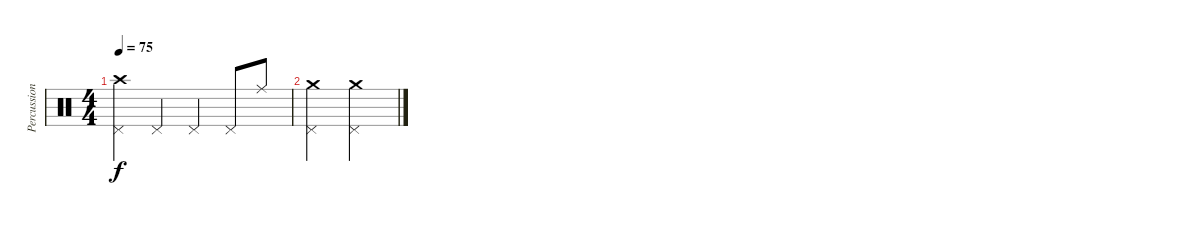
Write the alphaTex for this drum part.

\track ("Percussions" "Percussion") {instrument percussion}
\staff {score}
\articulation defaults
\ts (4 4)
\tempo 75
\clef neutral
\ks c
("Crash high (hit)" "Pedal Hi-Hat (hit)").4{dy f} "Pedal Hi-Hat (hit)".4 "Pedal Hi-Hat (hit)".4 "Pedal Hi-Hat (hit)".8 "Ride (middle)".8 |
("Crash medium (hit)" "Pedal Hi-Hat (hit)").2 ("Crash medium (hit)" "Pedal Hi-Hat (hit)").2
